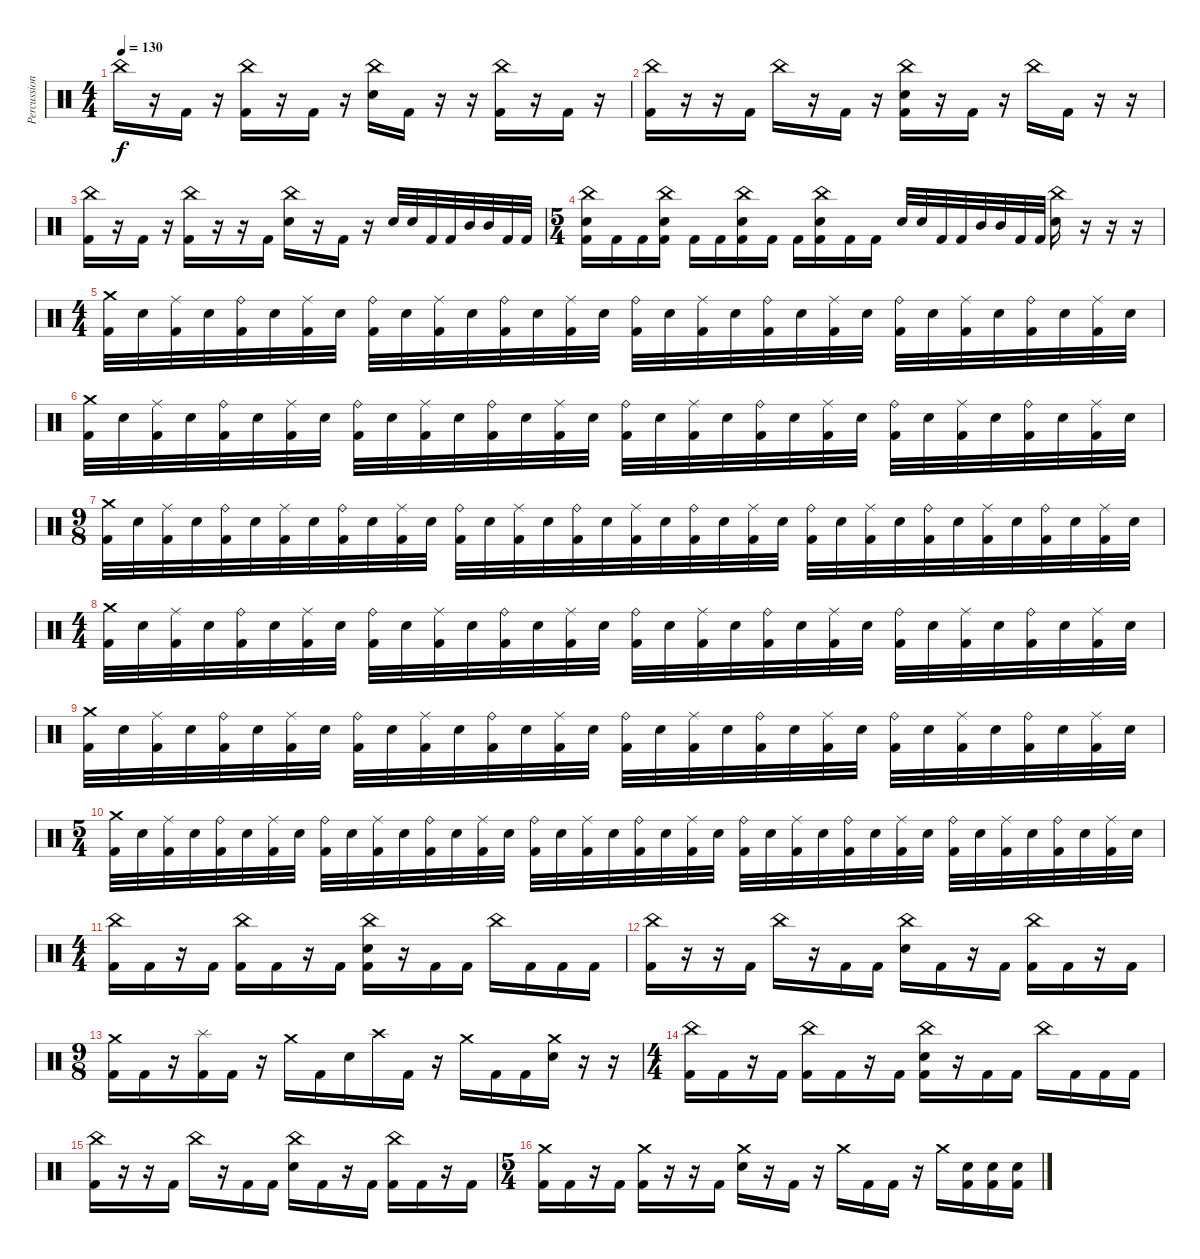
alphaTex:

\track ("Percussion" "Percussion") {instrument percussion}
\staff {score}
\articulation defaults
\ts (4 4)
\tempo 130
\clef neutral
\ks c "China (hit)".16{dy f}
r.16 "Kick (hit) 2".16 r.16 ("China (hit)" "Kick (hit) 2").16 r.16 "Kick (hit) 2".16 r.16 ("China (hit)" "Snare (hit) 2").16 "Kick (hit) 2".16 r.16 r.16 ("China (hit)" "Kick (hit) 2").16 r.16 "Kick (hit) 2".16 r.16 |
("China (hit)" "Kick (hit) 2").16 r.16 r.16 "Kick (hit) 2".16 "China (hit)".16 r.16 "Kick (hit) 2".16 r.16 ("China (hit)" "Snare (hit) 2" "Kick (hit) 2").16 r.16 "Kick (hit) 2".16 r.16 "China (hit)".16 "Kick (hit) 2".16 r.16 r.16 |
("China (hit)" "Kick (hit) 2").16 r.16 "Kick (hit) 2".16 r.16 ("China (hit)" "Kick (hit) 2").16 r.16 r.16 "Kick (hit) 2".16 ("China (hit)" "Snare (hit) 2").16 r.16 "Kick (hit) 2".16 r.16 "Snare (hit) 2".32 "Snare (hit) 2".32 "Kick (hit) 2".32 "Kick (hit) 2".32 "Mid Tom (hit)".32 "Mid Tom (hit)".32 "Kick (hit) 2".32 "Kick (hit) 2".32 |
\ts (5 4)
("China (hit)" "Snare (hit) 2" "Kick (hit) 2").16 "Kick (hit) 2".16 "Kick (hit) 2".16 ("China (hit)" "Snare (hit) 2" "Kick (hit) 2").16 "Kick (hit) 2".16 "Kick (hit) 2".16 ("China (hit)" "Snare (hit) 2" "Kick (hit) 2").16 "Kick (hit) 2".16 "Kick (hit) 2".16 ("China (hit)" "Snare (hit) 2" "Kick (hit) 2").16 "Kick (hit) 2".16 "Kick (hit) 2".16 "Snare (hit) 2".32 "Snare (hit) 2".32 "Kick (hit) 2".32 "Kick (hit) 2".32 "Mid Tom (hit)".32 "Mid Tom (hit)".32 "Kick (hit) 2".32 "Kick (hit) 2".32 ("China (hit)" "Snare (hit) 2").16 r.16 r.16 r.16 |
\ts (4 4)
("Crash medium (hit)" "Kick (hit) 2").32{volume 13} "Electric Snare (hit)".32 ("Ride (middle)" "Kick (hit) 2").32 "Electric Snare (hit)".32 ("Ride (bell)" "Kick (hit) 2").32 "Electric Snare (hit)".32 ("Ride (middle)" "Kick (hit) 2").32 "Electric Snare (hit)".32 ("Ride (bell)" "Kick (hit) 2").32 "Electric Snare (hit)".32 ("Ride (middle)" "Kick (hit) 2").32 "Electric Snare (hit)".32 ("Ride (bell)" "Kick (hit) 2").32 "Electric Snare (hit)".32 ("Ride (middle)" "Kick (hit) 2").32 "Electric Snare (hit)".32 ("Ride (bell)" "Kick (hit) 2").32 "Electric Snare (hit)".32 ("Ride (middle)" "Kick (hit) 2").32 "Electric Snare (hit)".32 ("Ride (bell)" "Kick (hit) 2").32 "Electric Snare (hit)".32 ("Ride (middle)" "Kick (hit) 2").32 "Electric Snare (hit)".32 ("Ride (bell)" "Kick (hit) 2").32 "Electric Snare (hit)".32 ("Ride (middle)" "Kick (hit) 2").32 "Electric Snare (hit)".32 ("Ride (bell)" "Kick (hit) 2").32 "Electric Snare (hit)".32 ("Ride (middle)" "Kick (hit) 2").32 "Electric Snare (hit)".32 |
("Crash medium (hit)" "Kick (hit) 2").32 "Electric Snare (hit)".32 ("Ride (middle)" "Kick (hit) 2").32 "Electric Snare (hit)".32 ("Ride (bell)" "Kick (hit) 2").32 "Electric Snare (hit)".32 ("Ride (middle)" "Kick (hit) 2").32 "Electric Snare (hit)".32 ("Ride (bell)" "Kick (hit) 2").32 "Electric Snare (hit)".32 ("Ride (middle)" "Kick (hit) 2").32 "Electric Snare (hit)".32 ("Ride (bell)" "Kick (hit) 2").32 "Electric Snare (hit)".32 ("Ride (middle)" "Kick (hit) 2").32 "Electric Snare (hit)".32 ("Ride (bell)" "Kick (hit) 2").32 "Electric Snare (hit)".32 ("Ride (middle)" "Kick (hit) 2").32 "Electric Snare (hit)".32 ("Ride (bell)" "Kick (hit) 2").32 "Electric Snare (hit)".32 ("Ride (middle)" "Kick (hit) 2").32 "Electric Snare (hit)".32 ("Ride (bell)" "Kick (hit) 2").32 "Electric Snare (hit)".32 ("Ride (middle)" "Kick (hit) 2").32 "Electric Snare (hit)".32 ("Ride (bell)" "Kick (hit) 2").32 "Electric Snare (hit)".32 ("Ride (middle)" "Kick (hit) 2").32 "Electric Snare (hit)".32 |
\ts (9 8)
("Crash medium (hit)" "Kick (hit) 2").32 "Electric Snare (hit)".32 ("Ride (middle)" "Kick (hit) 2").32 "Electric Snare (hit)".32 ("Ride (bell)" "Kick (hit) 2").32 "Electric Snare (hit)".32 ("Ride (middle)" "Kick (hit) 2").32 "Electric Snare (hit)".32 ("Ride (bell)" "Kick (hit) 2").32 "Electric Snare (hit)".32 ("Ride (middle)" "Kick (hit) 2").32 "Electric Snare (hit)".32 ("Ride (bell)" "Kick (hit) 2").32 "Electric Snare (hit)".32 ("Ride (middle)" "Kick (hit) 2").32 "Electric Snare (hit)".32 ("Ride (bell)" "Kick (hit) 2").32 "Electric Snare (hit)".32 ("Ride (middle)" "Kick (hit) 2").32 "Electric Snare (hit)".32 ("Ride (bell)" "Kick (hit) 2").32 "Electric Snare (hit)".32 ("Ride (middle)" "Kick (hit) 2").32 "Electric Snare (hit)".32 ("Ride (bell)" "Kick (hit) 2").32 "Electric Snare (hit)".32 ("Ride (middle)" "Kick (hit) 2").32 "Electric Snare (hit)".32 ("Ride (bell)" "Kick (hit) 2").32 "Electric Snare (hit)".32 ("Ride (middle)" "Kick (hit) 2").32 "Electric Snare (hit)".32 ("Ride (bell)" "Kick (hit) 2").32 "Electric Snare (hit)".32 ("Ride (middle)" "Kick (hit) 2").32 "Electric Snare (hit)".32 |
\ts (4 4)
("Crash medium (hit)" "Kick (hit) 2").32 "Electric Snare (hit)".32 ("Ride (middle)" "Kick (hit) 2").32 "Electric Snare (hit)".32 ("Ride (bell)" "Kick (hit) 2").32 "Electric Snare (hit)".32 ("Ride (middle)" "Kick (hit) 2").32 "Electric Snare (hit)".32 ("Ride (bell)" "Kick (hit) 2").32 "Electric Snare (hit)".32 ("Ride (middle)" "Kick (hit) 2").32 "Electric Snare (hit)".32 ("Ride (bell)" "Kick (hit) 2").32 "Electric Snare (hit)".32 ("Ride (middle)" "Kick (hit) 2").32 "Electric Snare (hit)".32 ("Ride (bell)" "Kick (hit) 2").32 "Electric Snare (hit)".32 ("Ride (middle)" "Kick (hit) 2").32 "Electric Snare (hit)".32 ("Ride (bell)" "Kick (hit) 2").32 "Electric Snare (hit)".32 ("Ride (middle)" "Kick (hit) 2").32 "Electric Snare (hit)".32 ("Ride (bell)" "Kick (hit) 2").32 "Electric Snare (hit)".32 ("Ride (middle)" "Kick (hit) 2").32 "Electric Snare (hit)".32 ("Ride (bell)" "Kick (hit) 2").32 "Electric Snare (hit)".32 ("Ride (middle)" "Kick (hit) 2").32 "Electric Snare (hit)".32 |
("Crash medium (hit)" "Kick (hit) 2").32 "Electric Snare (hit)".32 ("Ride (middle)" "Kick (hit) 2").32 "Electric Snare (hit)".32 ("Ride (bell)" "Kick (hit) 2").32 "Electric Snare (hit)".32 ("Ride (middle)" "Kick (hit) 2").32 "Electric Snare (hit)".32 ("Ride (bell)" "Kick (hit) 2").32 "Electric Snare (hit)".32 ("Ride (middle)" "Kick (hit) 2").32 "Electric Snare (hit)".32 ("Ride (bell)" "Kick (hit) 2").32 "Electric Snare (hit)".32 ("Ride (middle)" "Kick (hit) 2").32 "Electric Snare (hit)".32 ("Ride (bell)" "Kick (hit) 2").32 "Electric Snare (hit)".32 ("Ride (middle)" "Kick (hit) 2").32 "Electric Snare (hit)".32 ("Ride (bell)" "Kick (hit) 2").32 "Electric Snare (hit)".32 ("Ride (middle)" "Kick (hit) 2").32 "Electric Snare (hit)".32 ("Ride (bell)" "Kick (hit) 2").32 "Electric Snare (hit)".32 ("Ride (middle)" "Kick (hit) 2").32 "Electric Snare (hit)".32 ("Ride (bell)" "Kick (hit) 2").32 "Electric Snare (hit)".32 ("Ride (middle)" "Kick (hit) 2").32 "Electric Snare (hit)".32 |
\ts (5 4)
("Crash medium (hit)" "Kick (hit) 2").32 "Electric Snare (hit)".32 ("Ride (middle)" "Kick (hit) 2").32 "Electric Snare (hit)".32 ("Ride (bell)" "Kick (hit) 2").32 "Electric Snare (hit)".32 ("Ride (middle)" "Kick (hit) 2").32 "Electric Snare (hit)".32 ("Ride (bell)" "Kick (hit) 2").32 "Electric Snare (hit)".32 ("Ride (middle)" "Kick (hit) 2").32 "Electric Snare (hit)".32 ("Ride (bell)" "Kick (hit) 2").32 "Electric Snare (hit)".32 ("Ride (middle)" "Kick (hit) 2").32 "Electric Snare (hit)".32 ("Ride (bell)" "Kick (hit) 2").32 "Electric Snare (hit)".32 ("Ride (middle)" "Kick (hit) 2").32 "Electric Snare (hit)".32 ("Ride (bell)" "Kick (hit) 2").32 "Electric Snare (hit)".32 ("Ride (middle)" "Kick (hit) 2").32 "Electric Snare (hit)".32 ("Ride (bell)" "Kick (hit) 2").32 "Electric Snare (hit)".32 ("Ride (middle)" "Kick (hit) 2").32 "Electric Snare (hit)".32 ("Ride (bell)" "Kick (hit) 2").32 "Electric Snare (hit)".32 ("Ride (middle)" "Kick (hit) 2").32 "Electric Snare (hit)".32 ("Ride (bell)" "Kick (hit) 2").32 "Electric Snare (hit)".32 ("Ride (middle)" "Kick (hit) 2").32 "Electric Snare (hit)".32 ("Ride (bell)" "Kick (hit) 2").32 "Electric Snare (hit)".32 ("Ride (middle)" "Kick (hit) 2").32 "Electric Snare (hit)".32 |
\ts (4 4)
("China (hit)" "Kick (hit) 2").16 "Kick (hit) 2".16 r.16 "Kick (hit) 2".16 ("China (hit)" "Kick (hit) 2").16 "Kick (hit) 2".16 r.16 "Kick (hit) 2".16 ("China (hit)" "Electric Snare (hit)" "Kick (hit) 2").16 r.16 "Kick (hit) 2".16 "Kick (hit) 2".16 "China (hit)".16 "Kick (hit) 2".16 "Kick (hit) 2".16 "Kick (hit) 2".16 |
("China (hit)" "Kick (hit) 2").16 r.16 r.16 "Kick (hit) 2".16 "China (hit)".16 r.16 "Kick (hit) 2".16 "Kick (hit) 2".16 ("China (hit)" "Electric Snare (hit)").16 "Kick (hit) 2".16 r.16 "Kick (hit) 2".16 ("China (hit)" "Kick (hit) 2").16 "Kick (hit) 2".16 r.16 "Kick (hit) 2".16 |
\ts (9 8)
("Crash medium (hit)" "Kick (hit) 2").16 "Kick (hit) 2".16 r.16 ("Splash (hit)" "Kick (hit) 2").16 "Kick (hit) 2".16 r.16 "Crash medium (hit)".16 "Kick (hit) 2".16 "Electric Snare (hit)".16 "Crash high (hit)".16 "Kick (hit) 2".16 r.16 "Crash medium (hit)".16 "Kick (hit) 2".16 "Kick (hit) 2".16 ("Crash medium (hit)" "Electric Snare (hit)").16 r.16 r.16 |
\ts (4 4)
("China (hit)" "Kick (hit) 2").16 "Kick (hit) 2".16 r.16 "Kick (hit) 2".16 ("China (hit)" "Kick (hit) 2").16 "Kick (hit) 2".16 r.16 "Kick (hit) 2".16 ("China (hit)" "Electric Snare (hit)" "Kick (hit) 2").16 r.16 "Kick (hit) 2".16 "Kick (hit) 2".16 "China (hit)".16 "Kick (hit) 2".16 "Kick (hit) 2".16 "Kick (hit) 2".16 |
("China (hit)" "Kick (hit) 2").16 r.16 r.16 "Kick (hit) 2".16 "China (hit)".16 r.16 "Kick (hit) 2".16 "Kick (hit) 2".16 ("China (hit)" "Electric Snare (hit)").16 "Kick (hit) 2".16 r.16 "Kick (hit) 2".16 ("China (hit)" "Kick (hit) 2").16 "Kick (hit) 2".16 r.16 "Kick (hit) 2".16 |
\ts (5 4)
("Crash medium (hit)" "Kick (hit) 2").16 "Kick (hit) 2".16 r.16 "Kick (hit) 2".16 ("Crash medium (hit)" "Kick (hit) 2").16 r.16 r.16 "Kick (hit) 2".16 ("Crash medium (hit)" "Electric Snare (hit)").16 r.16 "Kick (hit) 2".16 r.16 "Crash medium (hit)".16 "Kick (hit) 2".16 "Kick (hit) 2".16 r.16 "Crash medium (hit)".16 ("Electric Snare (hit)" "Kick (hit) 2").16 ("Electric Snare (hit)" "Kick (hit) 2").16 ("Electric Snare (hit)" "Kick (hit) 2").16
